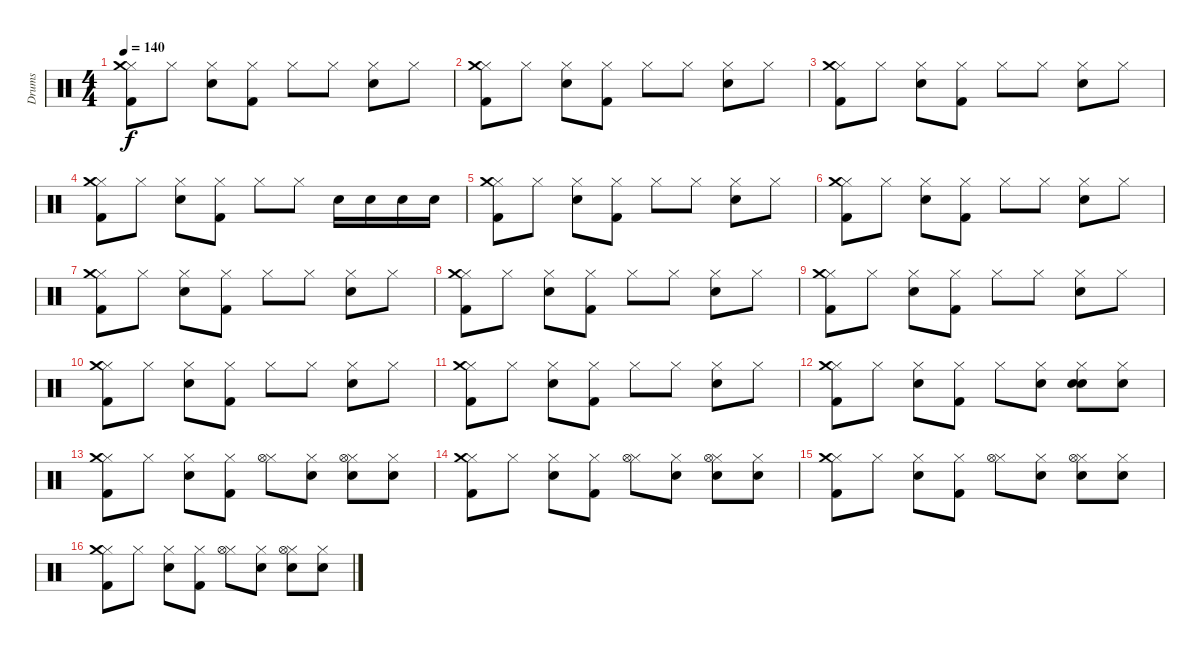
\track ("Drums" "Drums") {instrument percussion}
\staff {score}
\articulation defaults
\ts (4 4)
\tempo 140
\clef neutral
\ks c
("Hi-Hat (closed)" "Kick (hit) 2" "Crash medium (hit)").8{dy f} "Hi-Hat (closed)".8 ("Hi-Hat (closed)" "Electric Snare (hit)").8 ("Hi-Hat (closed)" "Kick (hit) 2").8 "Hi-Hat (closed)".8 "Hi-Hat (closed)".8 ("Hi-Hat (closed)" "Electric Snare (hit)").8 "Hi-Hat (closed)".8 |
("Hi-Hat (closed)" "Kick (hit) 2" "Crash medium (hit)").8 "Hi-Hat (closed)".8 ("Hi-Hat (closed)" "Electric Snare (hit)").8 ("Hi-Hat (closed)" "Kick (hit) 2").8 "Hi-Hat (closed)".8 "Hi-Hat (closed)".8 ("Hi-Hat (closed)" "Electric Snare (hit)").8 "Hi-Hat (closed)".8 |
("Hi-Hat (closed)" "Kick (hit) 2" "Crash medium (hit)").8 "Hi-Hat (closed)".8 ("Hi-Hat (closed)" "Electric Snare (hit)").8 ("Hi-Hat (closed)" "Kick (hit) 2").8 "Hi-Hat (closed)".8 "Hi-Hat (closed)".8 ("Hi-Hat (closed)" "Electric Snare (hit)").8 "Hi-Hat (closed)".8 |
("Hi-Hat (closed)" "Kick (hit) 2" "Crash medium (hit)").8 "Hi-Hat (closed)".8 ("Hi-Hat (closed)" "Electric Snare (hit)").8 ("Hi-Hat (closed)" "Kick (hit) 2").8 "Hi-Hat (closed)".8 "Hi-Hat (closed)".8 "Snare (hit) 2".16 "Electric Snare (hit)".16 "Snare (hit) 2".16 "Electric Snare (hit)".16 |
("Hi-Hat (closed)" "Kick (hit) 2" "Crash medium (hit)").8 "Hi-Hat (closed)".8 ("Hi-Hat (closed)" "Electric Snare (hit)").8 ("Hi-Hat (closed)" "Kick (hit) 2").8 "Hi-Hat (closed)".8 "Hi-Hat (closed)".8 ("Hi-Hat (closed)" "Electric Snare (hit)").8 "Hi-Hat (closed)".8 |
("Hi-Hat (closed)" "Kick (hit) 2" "Crash medium (hit)").8 "Hi-Hat (closed)".8 ("Hi-Hat (closed)" "Electric Snare (hit)").8 ("Hi-Hat (closed)" "Kick (hit) 2").8 "Hi-Hat (closed)".8 "Hi-Hat (closed)".8 ("Hi-Hat (closed)" "Electric Snare (hit)").8 "Hi-Hat (closed)".8 |
("Hi-Hat (closed)" "Kick (hit) 2" "Crash medium (hit)").8 "Hi-Hat (closed)".8 ("Hi-Hat (closed)" "Electric Snare (hit)").8 ("Hi-Hat (closed)" "Kick (hit) 2").8 "Hi-Hat (closed)".8 "Hi-Hat (closed)".8 ("Hi-Hat (closed)" "Electric Snare (hit)").8 "Hi-Hat (closed)".8 |
("Hi-Hat (closed)" "Kick (hit) 2" "Crash medium (hit)").8 "Hi-Hat (closed)".8 ("Hi-Hat (closed)" "Electric Snare (hit)").8 ("Hi-Hat (closed)" "Kick (hit) 2").8 "Hi-Hat (closed)".8 "Hi-Hat (closed)".8 ("Hi-Hat (closed)" "Electric Snare (hit)").8 "Hi-Hat (closed)".8 |
("Hi-Hat (closed)" "Kick (hit) 2" "Crash medium (hit)").8 "Hi-Hat (closed)".8 ("Hi-Hat (closed)" "Electric Snare (hit)").8 ("Hi-Hat (closed)" "Kick (hit) 2").8 "Hi-Hat (closed)".8 "Hi-Hat (closed)".8 ("Hi-Hat (closed)" "Electric Snare (hit)").8 "Hi-Hat (closed)".8 |
("Hi-Hat (closed)" "Kick (hit) 2" "Crash medium (hit)").8 "Hi-Hat (closed)".8 ("Hi-Hat (closed)" "Electric Snare (hit)").8 ("Hi-Hat (closed)" "Kick (hit) 2").8 "Hi-Hat (closed)".8 "Hi-Hat (closed)".8 ("Hi-Hat (closed)" "Electric Snare (hit)").8 "Hi-Hat (closed)".8 |
("Hi-Hat (closed)" "Kick (hit) 2" "Crash medium (hit)").8 "Hi-Hat (closed)".8 ("Hi-Hat (closed)" "Electric Snare (hit)").8 ("Hi-Hat (closed)" "Kick (hit) 2").8 "Hi-Hat (closed)".8 "Hi-Hat (closed)".8 ("Hi-Hat (closed)" "Electric Snare (hit)").8 "Hi-Hat (closed)".8 |
("Hi-Hat (closed)" "Kick (hit) 2" "Crash medium (hit)").8 "Hi-Hat (closed)".8 ("Hi-Hat (closed)" "Electric Snare (hit)").8 ("Hi-Hat (closed)" "Kick (hit) 2").8 "Hi-Hat (closed)".8 ("Hi-Hat (closed)" "Snare (hit) 2").8 ("Hi-Hat (closed)" "Electric Snare (hit)" "Snare (hit) 2").8 ("Hi-Hat (closed)" "Snare (hit) 2").8 |
("Hi-Hat (closed)" "Kick (hit) 2" "Crash medium (hit)").8 "Hi-Hat (closed)".8 ("Hi-Hat (closed)" "Electric Snare (hit)").8 ("Hi-Hat (closed)" "Kick (hit) 2").8 ("Hi-Hat (closed)" "Hi-Hat (open)").8 ("Hi-Hat (closed)" "Electric Snare (hit)").8 ("Hi-Hat (closed)" "Electric Snare (hit)" "Hi-Hat (open)").8 ("Hi-Hat (closed)" "Electric Snare (hit)").8 |
("Hi-Hat (closed)" "Kick (hit) 2" "Crash medium (hit)").8 "Hi-Hat (closed)".8 ("Hi-Hat (closed)" "Electric Snare (hit)").8 ("Hi-Hat (closed)" "Kick (hit) 2").8 ("Hi-Hat (closed)" "Hi-Hat (open)").8 ("Hi-Hat (closed)" "Electric Snare (hit)").8 ("Hi-Hat (closed)" "Electric Snare (hit)" "Hi-Hat (open)").8 ("Hi-Hat (closed)" "Electric Snare (hit)").8 |
("Hi-Hat (closed)" "Kick (hit) 2" "Crash medium (hit)").8 "Hi-Hat (closed)".8 ("Hi-Hat (closed)" "Electric Snare (hit)").8 ("Hi-Hat (closed)" "Kick (hit) 2").8 ("Hi-Hat (closed)" "Hi-Hat (open)").8 ("Hi-Hat (closed)" "Electric Snare (hit)").8 ("Hi-Hat (closed)" "Electric Snare (hit)" "Hi-Hat (open)").8 ("Hi-Hat (closed)" "Electric Snare (hit)").8 |
("Hi-Hat (closed)" "Kick (hit) 2" "Crash medium (hit)").8 "Hi-Hat (closed)".8 ("Hi-Hat (closed)" "Electric Snare (hit)").8 ("Hi-Hat (closed)" "Kick (hit) 2").8 ("Hi-Hat (closed)" "Hi-Hat (open)").8 ("Hi-Hat (closed)" "Electric Snare (hit)").8 ("Hi-Hat (closed)" "Electric Snare (hit)" "Hi-Hat (open)").8 ("Hi-Hat (closed)" "Electric Snare (hit)").8
